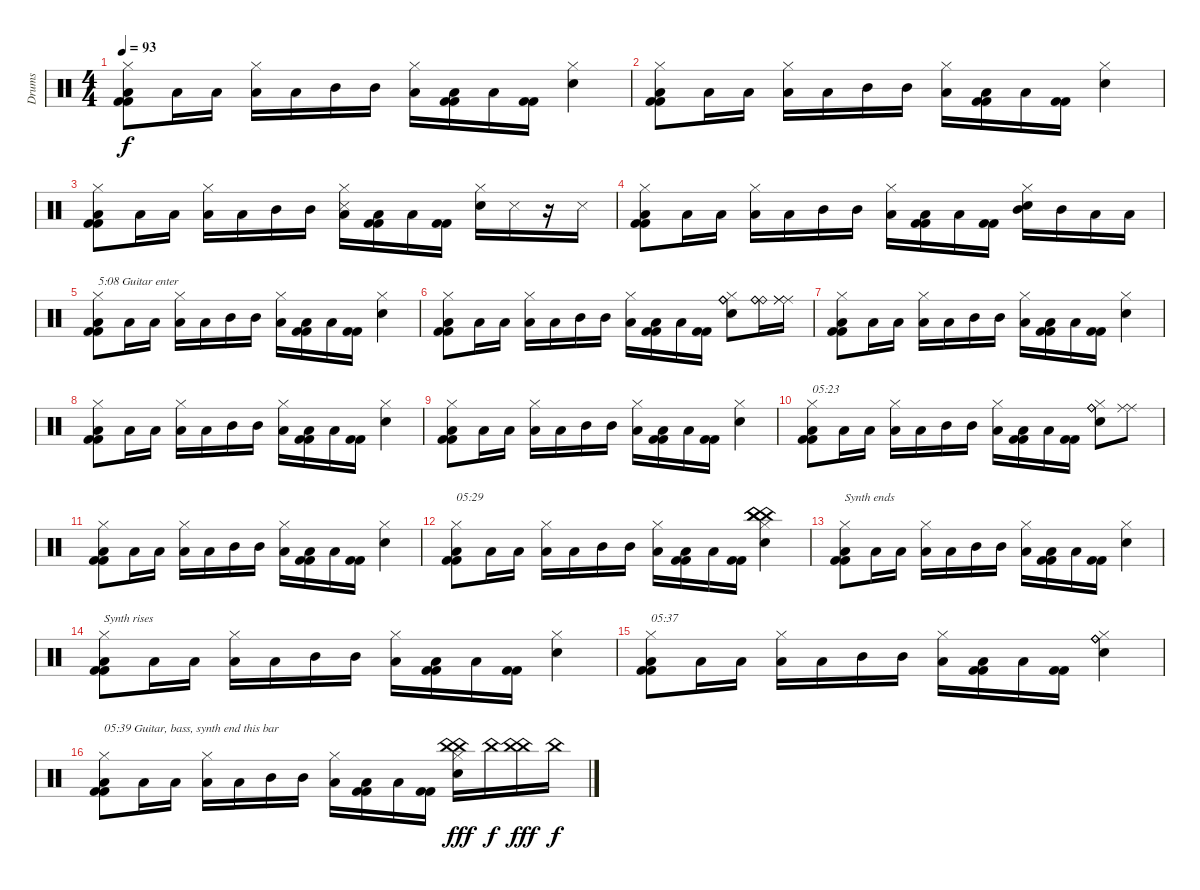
\track ("Drums" "Drums") {instrument percussion}
\staff {score}
\articulation defaults
\ts (4 4)
\tempo 93
\clef neutral
\ks c
("Hi-Hat (closed)" "Low Floor Tom (hit)" "Kick (hit) 2" "Kick (hit) 2").8{dy f} "Low Floor Tom (hit)".16 "Low Tom (hit)".16 ("Hi-Hat (closed)" "Low Tom (hit)").16 "Low Floor Tom (hit)".16 "Mid Tom (hit)".16 "Mid Tom (hit)".16 ("Hi-Hat (closed)" "Low Floor Tom (hit)").16 ("Low Tom (hit)" "Kick (hit) 2" "Kick (hit) 2").16 "Low Floor Tom (hit)".16 ("Kick (hit) 2" "Kick (hit) 2").16 ("Hi-Hat (closed)" "Snare (hit) 2").4 |
("Hi-Hat (closed)" "Low Floor Tom (hit)" "Kick (hit) 2" "Kick (hit) 2").8 "Low Floor Tom (hit)".16 "Low Tom (hit)".16 ("Hi-Hat (closed)" "Low Tom (hit)").16 "Low Floor Tom (hit)".16 "Mid Tom (hit)".16 "Mid Tom (hit)".16 ("Hi-Hat (closed)" "Low Floor Tom (hit)").16 ("Low Tom (hit)" "Kick (hit) 2" "Kick (hit) 2").16 "Low Floor Tom (hit)".16 ("Kick (hit) 2" "Kick (hit) 2").16 ("Hi-Hat (closed)" "Snare (hit) 2").4 |
("Hi-Hat (closed)" "Low Floor Tom (hit)" "Kick (hit) 2" "Kick (hit) 2").8 "Low Floor Tom (hit)".16 "Low Tom (hit)".16 ("Hi-Hat (closed)" "Low Tom (hit)").16 "Low Floor Tom (hit)".16 "Mid Tom (hit)".16 "Mid Tom (hit)".16 ("Hi-Hat (closed)" "Snare (side stick) 3" "Low Floor Tom (hit)").16 ("Low Tom (hit)" "Kick (hit) 2" "Kick (hit) 2").16 "Low Floor Tom (hit)".16 ("Kick (hit) 2" "Kick (hit) 2").16 ("Hi-Hat (closed)" "Snare (hit) 2").16 "Snare (side stick) 3".16 r.16 "Snare (side stick) 3".16 |
("Hi-Hat (closed)" "Low Floor Tom (hit)" "Kick (hit) 2" "Kick (hit) 2").8 "Low Floor Tom (hit)".16 "Low Tom (hit)".16 ("Hi-Hat (closed)" "Low Tom (hit)").16 "Low Floor Tom (hit)".16 "Mid Tom (hit)".16 "Mid Tom (hit)".16 ("Hi-Hat (closed)" "Low Floor Tom (hit)").16 ("Low Tom (hit)" "Kick (hit) 2" "Kick (hit) 2").16 "Low Floor Tom (hit)".16 ("Kick (hit) 2" "Kick (hit) 2").16 ("Hi-Hat (closed)" "Mid Tom (hit)" "Snare (hit) 2").16 "Mid Tom (hit)".16 "Low Tom (hit)".16 "Low Floor Tom (hit)".16 |
("Hi-Hat (closed)" "Low Floor Tom (hit)" "Kick (hit) 2" "Kick (hit) 2").8{txt "5:08 Guitar enter"} "Low Floor Tom (hit)".16 "Low Tom (hit)".16 ("Hi-Hat (closed)" "Low Tom (hit)").16 "Low Floor Tom (hit)".16 "Mid Tom (hit)".16 "Mid Tom (hit)".16 ("Hi-Hat (closed)" "Low Floor Tom (hit)").16 ("Low Tom (hit)" "Kick (hit) 2" "Kick (hit) 2").16 "Low Floor Tom (hit)".16 ("Kick (hit) 2" "Kick (hit) 2").16 ("Hi-Hat (closed)" "Snare (hit) 2").4 |
("Hi-Hat (closed)" "Low Floor Tom (hit)" "Kick (hit) 2" "Kick (hit) 2").8 "Low Floor Tom (hit)".16 "Low Tom (hit)".16 ("Hi-Hat (closed)" "Low Tom (hit)").16 "Low Floor Tom (hit)".16 "Mid Tom (hit)".16 "Mid Tom (hit)".16 ("Hi-Hat (closed)" "Low Floor Tom (hit)").16 ("Low Tom (hit)" "Kick (hit) 2" "Kick (hit) 2").16 "Low Floor Tom (hit)".16 ("Kick (hit) 2" "Kick (hit) 2").16 ("Hi-Hat (closed)" "Ride (bell)" "Ride (bell)" "Ride (bell)" "Snare (hit) 2").8 ("Ride (bell)" "Ride (bell)" "Ride (bell)").16 ("Ride (middle)" "Ride (middle)" "Ride (middle)").16 |
("Hi-Hat (closed)" "Low Floor Tom (hit)" "Kick (hit) 2" "Kick (hit) 2").8 "Low Floor Tom (hit)".16 "Low Tom (hit)".16 ("Hi-Hat (closed)" "Low Tom (hit)").16 "Low Floor Tom (hit)".16 "Mid Tom (hit)".16 "Mid Tom (hit)".16 ("Hi-Hat (closed)" "Low Floor Tom (hit)").16 ("Low Tom (hit)" "Kick (hit) 2" "Kick (hit) 2").16 "Low Floor Tom (hit)".16 ("Kick (hit) 2" "Kick (hit) 2").16 ("Hi-Hat (closed)" "Snare (hit) 2").4 |
("Hi-Hat (closed)" "Low Floor Tom (hit)" "Kick (hit) 2" "Kick (hit) 2").8 "Low Floor Tom (hit)".16 "Low Tom (hit)".16 ("Hi-Hat (closed)" "Low Tom (hit)").16 "Low Floor Tom (hit)".16 "Mid Tom (hit)".16 "Mid Tom (hit)".16 ("Hi-Hat (closed)" "Low Floor Tom (hit)").16 ("Low Tom (hit)" "Kick (hit) 2" "Kick (hit) 2").16 "Low Floor Tom (hit)".16 ("Kick (hit) 2" "Kick (hit) 2").16 ("Hi-Hat (closed)" "Snare (hit) 2").4 |
("Hi-Hat (closed)" "Low Floor Tom (hit)" "Kick (hit) 2" "Kick (hit) 2").8 "Low Floor Tom (hit)".16 "Low Tom (hit)".16 ("Hi-Hat (closed)" "Low Tom (hit)").16 "Low Floor Tom (hit)".16 "Mid Tom (hit)".16 "Mid Tom (hit)".16 ("Hi-Hat (closed)" "Low Floor Tom (hit)").16 ("Low Tom (hit)" "Kick (hit) 2" "Kick (hit) 2").16 "Low Floor Tom (hit)".16 ("Kick (hit) 2" "Kick (hit) 2").16 ("Hi-Hat (closed)" "Snare (hit) 2").4 |
("Hi-Hat (closed)" "Low Floor Tom (hit)" "Kick (hit) 2" "Kick (hit) 2").8{txt "05:23"} "Low Floor Tom (hit)".16 "Low Tom (hit)".16 ("Hi-Hat (closed)" "Low Tom (hit)").16 "Low Floor Tom (hit)".16 "Mid Tom (hit)".16 "Mid Tom (hit)".16 ("Hi-Hat (closed)" "Low Floor Tom (hit)").16 ("Low Tom (hit)" "Kick (hit) 2" "Kick (hit) 2").16 "Low Floor Tom (hit)".16 ("Kick (hit) 2" "Kick (hit) 2").16 ("Hi-Hat (closed)" "Ride (bell)" "Ride (bell)" "Snare (hit) 2").8 ("Ride (middle)" "Ride (middle)").8 |
("Hi-Hat (closed)" "Low Floor Tom (hit)" "Kick (hit) 2" "Kick (hit) 2").8 "Low Floor Tom (hit)".16 "Low Tom (hit)".16 ("Hi-Hat (closed)" "Low Tom (hit)").16 "Low Floor Tom (hit)".16 "Mid Tom (hit)".16 "Mid Tom (hit)".16 ("Hi-Hat (closed)" "Low Floor Tom (hit)").16 ("Low Tom (hit)" "Kick (hit) 2" "Kick (hit) 2").16 "Low Floor Tom (hit)".16 ("Kick (hit) 2" "Kick (hit) 2").16 ("Hi-Hat (closed)" "Snare (hit) 2").4 |
("Hi-Hat (closed)" "Low Floor Tom (hit)" "Kick (hit) 2" "Kick (hit) 2").8{txt "05:29"} "Low Floor Tom (hit)".16 "Low Tom (hit)".16 ("Hi-Hat (closed)" "Low Tom (hit)").16 "Low Floor Tom (hit)".16 "Mid Tom (hit)".16 "Mid Tom (hit)".16 ("Hi-Hat (closed)" "Low Floor Tom (hit)").16 ("Low Tom (hit)" "Kick (hit) 2" "Kick (hit) 2").16 "Low Floor Tom (hit)".16 ("Kick (hit) 2" "Kick (hit) 2").16 ("Hi-Hat (closed)" "China (hit)" "China (hit)" "China (hit)" "Snare (hit) 2").4 |
("Hi-Hat (closed)" "Low Floor Tom (hit)" "Kick (hit) 2" "Kick (hit) 2").8{txt "Synth ends"} "Low Floor Tom (hit)".16 "Low Tom (hit)".16 ("Hi-Hat (closed)" "Low Tom (hit)").16 "Low Floor Tom (hit)".16 "Mid Tom (hit)".16 "Mid Tom (hit)".16 ("Hi-Hat (closed)" "Low Floor Tom (hit)").16 ("Low Tom (hit)" "Kick (hit) 2" "Kick (hit) 2").16 "Low Floor Tom (hit)".16 ("Kick (hit) 2" "Kick (hit) 2").16 ("Hi-Hat (closed)" "Snare (hit) 2").4 |
("Hi-Hat (closed)" "Low Floor Tom (hit)" "Kick (hit) 2" "Kick (hit) 2").8{txt "Synth rises"} "Low Floor Tom (hit)".16 "Low Tom (hit)".16 ("Hi-Hat (closed)" "Low Tom (hit)").16 "Low Floor Tom (hit)".16 "Mid Tom (hit)".16 "Mid Tom (hit)".16 ("Hi-Hat (closed)" "Low Floor Tom (hit)").16 ("Low Tom (hit)" "Kick (hit) 2" "Kick (hit) 2").16 "Low Floor Tom (hit)".16 ("Kick (hit) 2" "Kick (hit) 2").16 ("Hi-Hat (closed)" "Snare (hit) 2").4 |
("Hi-Hat (closed)" "Low Floor Tom (hit)" "Kick (hit) 2" "Kick (hit) 2").8{txt "05:37"} "Low Floor Tom (hit)".16 "Low Tom (hit)".16 ("Hi-Hat (closed)" "Low Tom (hit)").16 "Low Floor Tom (hit)".16 "Mid Tom (hit)".16 "Mid Tom (hit)".16 ("Hi-Hat (closed)" "Low Floor Tom (hit)").16 ("Low Tom (hit)" "Kick (hit) 2" "Kick (hit) 2").16 "Low Floor Tom (hit)".16 ("Kick (hit) 2" "Kick (hit) 2").16 ("Hi-Hat (closed)" "Ride (bell)" "Ride (bell)" "Ride (bell)" "Snare (hit) 2").4 |
("Hi-Hat (closed)" "Low Floor Tom (hit)" "Kick (hit) 2" "Kick (hit) 2").8{txt "05:39 Guitar, bass, synth end this bar"} "Low Floor Tom (hit)".16 "Low Tom (hit)".16 ("Hi-Hat (closed)" "Low Tom (hit)").16 "Low Floor Tom (hit)".16 "Mid Tom (hit)".16 "Mid Tom (hit)".16 ("Hi-Hat (closed)" "Low Floor Tom (hit)").16 ("Low Tom (hit)" "Kick (hit) 2" "Kick (hit) 2").16 "Low Floor Tom (hit)".16 ("Kick (hit) 2" "Kick (hit) 2").16 ("Hi-Hat (closed)" "China (hit)" "China (hit)" "Snare (hit) 2").16{dy fff} "China (hit)".16{dy f} ("China (hit)" "China (hit)").16{dy fff} "China (hit)".16{dy f}
